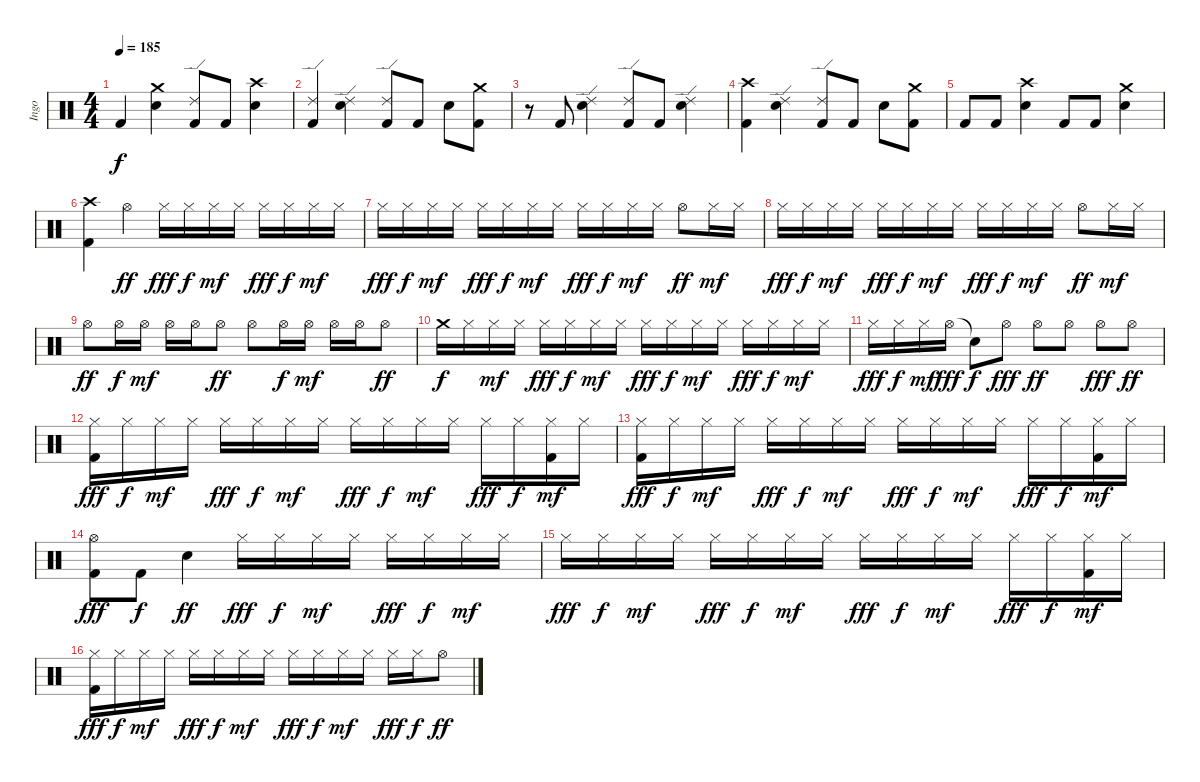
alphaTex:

\track ("Ingo" "Ingo") {instrument percussion}
\staff {score}
\articulation defaults
\ts (4 4)
\tempo 185
\clef neutral
\ks c "Kick (hit) 2".4{dy f}
("Crash medium (hit)" "Electric Snare (hit)").4 ("Ride (edge) 2" "Kick (hit) 2").8 "Kick (hit) 2".8 ("Crash high (hit)" "Electric Snare (hit)").4 |
("Ride (edge) 2" "Kick (hit) 2").4 ("Ride (edge) 2" "Electric Snare (hit)").4 ("Ride (edge) 2" "Kick (hit) 2").8 "Kick (hit) 2".8 "Electric Snare (hit)".8 ("Crash medium (hit)" "Kick (hit) 2").8 |
r.8 "Kick (hit) 2".8 ("Ride (edge) 2" "Electric Snare (hit)").4 ("Ride (edge) 2" "Kick (hit) 2").8 "Kick (hit) 2".8 ("Ride (edge) 2" "Electric Snare (hit)").4 |
("Crash high (hit)" "Kick (hit) 2").4 ("Ride (edge) 2" "Electric Snare (hit)").4 ("Ride (edge) 2" "Kick (hit) 2").8 "Kick (hit) 2".8 "Electric Snare (hit)".8 ("Crash medium (hit)" "Kick (hit) 2").8 |
"Kick (hit) 2".8 "Kick (hit) 2".8 ("Crash high (hit)" "Electric Snare (hit)").4 "Kick (hit) 2".8 "Kick (hit) 2".8 ("Crash medium (hit)" "Electric Snare (hit)").4 |
("Crash high (hit)" "Kick (hit) 2").4 "Hi-Hat (open)".4{dy ff} "Hi-Hat (closed)".16{dy fff} "Hi-Hat (closed)".16{dy f} "Hi-Hat (closed)".16{dy mf} "Hi-Hat (closed)".16 "Hi-Hat (closed)".16{dy fff} "Hi-Hat (closed)".16{dy f} "Hi-Hat (closed)".16{dy mf} "Hi-Hat (closed)".16 |
"Hi-Hat (closed)".16{dy fff} "Hi-Hat (closed)".16{dy f} "Hi-Hat (closed)".16{dy mf} "Hi-Hat (closed)".16 "Hi-Hat (closed)".16{dy fff} "Hi-Hat (closed)".16{dy f} "Hi-Hat (closed)".16{dy mf} "Hi-Hat (closed)".16 "Hi-Hat (closed)".16{dy fff} "Hi-Hat (closed)".16{dy f} "Hi-Hat (closed)".16{dy mf} "Hi-Hat (closed)".16 "Hi-Hat (open)".8{dy ff} "Hi-Hat (closed)".16{dy mf} "Hi-Hat (closed)".16 |
"Hi-Hat (closed)".16{dy fff} "Hi-Hat (closed)".16{dy f} "Hi-Hat (closed)".16{dy mf} "Hi-Hat (closed)".16 "Hi-Hat (closed)".16{dy fff} "Hi-Hat (closed)".16{dy f} "Hi-Hat (closed)".16{dy mf} "Hi-Hat (closed)".16 "Hi-Hat (closed)".16{dy fff} "Hi-Hat (closed)".16{dy f} "Hi-Hat (closed)".16{dy mf} "Hi-Hat (closed)".16 "Hi-Hat (open)".8{dy ff} "Hi-Hat (closed)".16{dy mf} "Hi-Hat (closed)".16 |
"Hi-Hat (open)".8{dy ff} "Hi-Hat (open)".16{dy f} "Hi-Hat (open)".16{dy mf} "Hi-Hat (open)".16 "Hi-Hat (open)".16 "Hi-Hat (open)".8{dy ff} "Hi-Hat (open)".8 "Hi-Hat (open)".16{dy f} "Hi-Hat (open)".16{dy mf} "Hi-Hat (open)".16 "Hi-Hat (open)".16 "Hi-Hat (open)".8{dy ff} |
"Crash medium (hit)".16{dy f} "Hi-Hat (closed)".16 "Hi-Hat (closed)".16{dy mf} "Hi-Hat (closed)".16 "Hi-Hat (closed)".16{dy fff} "Hi-Hat (closed)".16{dy f} "Hi-Hat (closed)".16{dy mf} "Hi-Hat (closed)".16 "Hi-Hat (closed)".16{dy fff} "Hi-Hat (closed)".16{dy f} "Hi-Hat (closed)".16{dy mf} "Hi-Hat (closed)".16 "Hi-Hat (closed)".16{dy fff} "Hi-Hat (closed)".16{dy f} "Hi-Hat (closed)".16{dy mf} "Hi-Hat (closed)".16 |
"Hi-Hat (closed)".16{dy fff} "Hi-Hat (closed)".16{dy f} "Hi-Hat (closed)".16{dy mf} "Hi-Hat (open)".16{dy fff} "Snare (hit)"{t}.8{dy f} "Hi-Hat (open)".8{dy fff} "Hi-Hat (open)".8{dy ff} "Hi-Hat (open)".8 "Hi-Hat (open)".8{dy fff} "Hi-Hat (open)".8{dy ff} |
("Hi-Hat (closed)" "Kick (hit) 2").16{dy fff} "Hi-Hat (closed)".16{dy f} "Hi-Hat (closed)".16{dy mf} "Hi-Hat (closed)".16 "Hi-Hat (closed)".16{dy fff} "Hi-Hat (closed)".16{dy f} "Hi-Hat (closed)".16{dy mf} "Hi-Hat (closed)".16 "Hi-Hat (closed)".16{dy fff} "Hi-Hat (closed)".16{dy f} "Hi-Hat (closed)".16{dy mf} "Hi-Hat (closed)".16 "Hi-Hat (closed)".16{dy fff} "Hi-Hat (closed)".16{dy f} ("Hi-Hat (closed)" "Kick (hit) 2").16{dy mf} "Hi-Hat (closed)".16 |
("Hi-Hat (closed)" "Kick (hit) 2").16{dy fff} "Hi-Hat (closed)".16{dy f} "Hi-Hat (closed)".16{dy mf} "Hi-Hat (closed)".16 "Hi-Hat (closed)".16{dy fff} "Hi-Hat (closed)".16{dy f} "Hi-Hat (closed)".16{dy mf} "Hi-Hat (closed)".16 "Hi-Hat (closed)".16{dy fff} "Hi-Hat (closed)".16{dy f} "Hi-Hat (closed)".16{dy mf} "Hi-Hat (closed)".16 "Hi-Hat (closed)".16{dy fff} "Hi-Hat (closed)".16{dy f} ("Hi-Hat (closed)" "Kick (hit) 2").16{dy mf} "Hi-Hat (closed)".16 |
("Hi-Hat (open)" "Kick (hit) 2").8{dy fff} "Kick (hit) 2".8{dy f} "Electric Snare (hit)".4{dy ff} "Hi-Hat (closed)".16{dy fff} "Hi-Hat (closed)".16{dy f} "Hi-Hat (closed)".16{dy mf} "Hi-Hat (closed)".16 "Hi-Hat (closed)".16{dy fff} "Hi-Hat (closed)".16{dy f} "Hi-Hat (closed)".16{dy mf} "Hi-Hat (closed)".16 |
"Hi-Hat (closed)".16{dy fff} "Hi-Hat (closed)".16{dy f} "Hi-Hat (closed)".16{dy mf} "Hi-Hat (closed)".16 "Hi-Hat (closed)".16{dy fff} "Hi-Hat (closed)".16{dy f} "Hi-Hat (closed)".16{dy mf} "Hi-Hat (closed)".16 "Hi-Hat (closed)".16{dy fff} "Hi-Hat (closed)".16{dy f} "Hi-Hat (closed)".16{dy mf} "Hi-Hat (closed)".16 "Hi-Hat (closed)".16{dy fff} "Hi-Hat (closed)".16{dy f} ("Hi-Hat (closed)" "Kick (hit) 2").16{dy mf} "Hi-Hat (closed)".16 |
("Hi-Hat (closed)" "Kick (hit) 2").16{dy fff} "Hi-Hat (closed)".16{dy f} "Hi-Hat (closed)".16{dy mf} "Hi-Hat (closed)".16 "Hi-Hat (closed)".16{dy fff} "Hi-Hat (closed)".16{dy f} "Hi-Hat (closed)".16{dy mf} "Hi-Hat (closed)".16 "Hi-Hat (closed)".16{dy fff} "Hi-Hat (closed)".16{dy f} "Hi-Hat (closed)".16{dy mf} "Hi-Hat (closed)".16 "Hi-Hat (closed)".16{dy fff} "Hi-Hat (closed)".16{dy f} "Hi-Hat (open)".8{dy ff}
